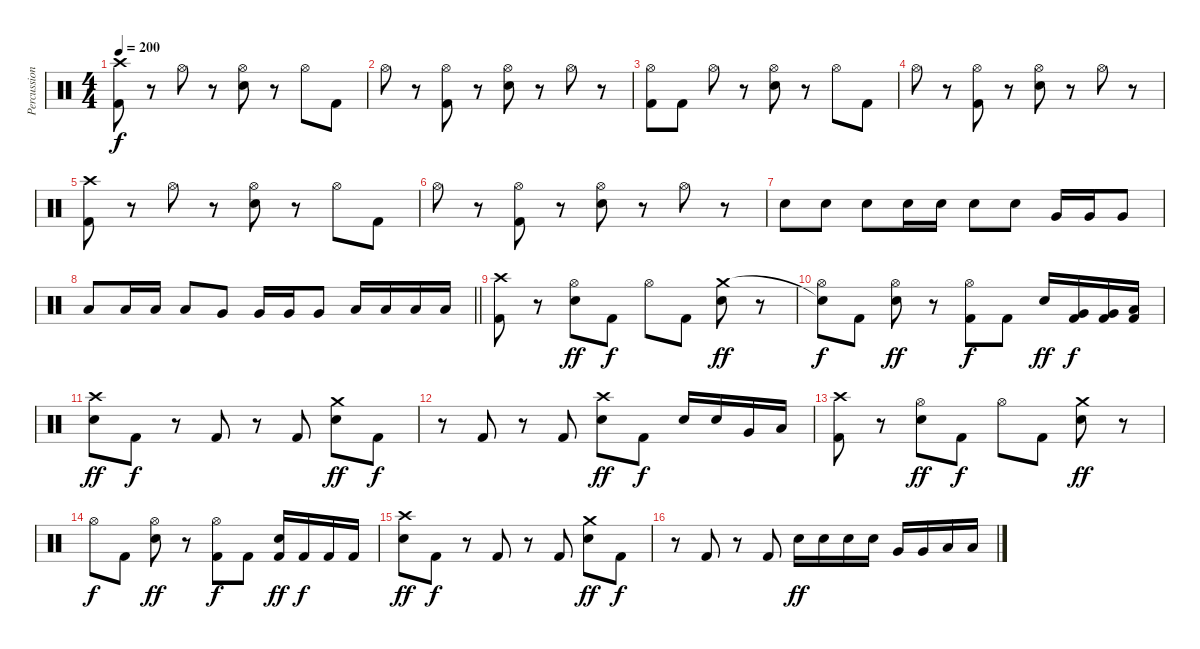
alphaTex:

\track ("Percussion" "Percussion") {instrument percussion}
\staff {score}
\articulation defaults
\ts (4 4)
\tempo 200
\clef neutral
\ks c
("Crash high (hit)" "Kick (hit) 2").8{dy f} r.8 "Hi-Hat (open)".8 r.8 ("Hi-Hat (open)" "Electric Snare (hit)").8 r.8 "Hi-Hat (open)".8 "Kick (hit) 2".8 |
"Hi-Hat (open)".8 r.8 ("Hi-Hat (open)" "Kick (hit) 2").8 r.8 ("Hi-Hat (open)" "Electric Snare (hit)").8 r.8 "Hi-Hat (open)".8 r.8 |
("Hi-Hat (open)" "Kick (hit) 2").8 "Kick (hit) 2".8 "Hi-Hat (open)".8 r.8 ("Hi-Hat (open)" "Electric Snare (hit)").8 r.8 "Hi-Hat (open)".8 "Kick (hit) 2".8 |
"Hi-Hat (open)".8 r.8 ("Hi-Hat (open)" "Kick (hit) 2").8 r.8 ("Hi-Hat (open)" "Electric Snare (hit)").8 r.8 "Hi-Hat (open)".8 r.8 |
("Crash high (hit)" "Kick (hit) 2").8 r.8 "Hi-Hat (open)".8 r.8 ("Hi-Hat (open)" "Electric Snare (hit)").8 r.8 "Hi-Hat (open)".8 "Kick (hit) 2".8 |
"Hi-Hat (open)".8 r.8 ("Hi-Hat (open)" "Kick (hit) 2").8 r.8 ("Hi-Hat (open)" "Electric Snare (hit)").8 r.8 "Hi-Hat (open)".8 r.8 |
"Electric Snare (hit)".8 "Electric Snare (hit)".8 "Electric Snare (hit)".8 "Electric Snare (hit)".16 "Electric Snare (hit)".16 "Electric Snare (hit)".8 "Electric Snare (hit)".8 "Very Low Tom (hit)".16 "Very Low Tom (hit)".16 "Very Low Tom (hit)".8 |
\barLineRight lightlight "Low Tom (hit)".8 "Low Tom (hit)".16 "Low Tom (hit)".16 "Low Tom (hit)".8 "Very Low Tom (hit)".8 "Very Low Tom (hit)".16 "Very Low Tom (hit)".16 "Very Low Tom (hit)".8 "Low Floor Tom (hit)".16 "Low Floor Tom (hit)".16 "Low Floor Tom (hit)".16 "Low Floor Tom (hit)".16
|
\section ("" "")
("Crash high (hit)" "Kick (hit) 2").8 r.8 ("Hi-Hat (open)" "Electric Snare (hit)").8{dy ff} "Kick (hit) 2".8{dy f} "Hi-Hat (open)".8 "Kick (hit) 2".8 ("Crash medium (hit)" "Electric Snare (hit)").8{dy ff} r.8 |
("Snare (hit)"{t} "Hi-Hat (open)").8{dy f} "Kick (hit) 2".8 ("Hi-Hat (open)" "Electric Snare (hit)").8{dy ff} r.8 ("Hi-Hat (open)" "Kick (hit) 2").8{dy f} "Kick (hit) 2".8 "Electric Snare (hit)".16{dy ff} ("Very Low Tom (hit)" "Kick (hit) 2").16{dy f} ("Very Low Tom (hit)" "Kick (hit) 2").16 ("Low Floor Tom (hit)" "Kick (hit) 2").16 |
("Crash high (hit)" "Electric Snare (hit)").8{dy ff} "Kick (hit) 2".8{dy f} r.8 "Kick (hit) 2".8 r.8 "Kick (hit) 2".8 ("Crash medium (hit)" "Electric Snare (hit)").8{dy ff} "Kick (hit) 2".8{dy f} |
r.8 "Kick (hit) 2".8 r.8 "Kick (hit) 2".8 ("Crash high (hit)" "Electric Snare (hit)").8{dy ff} "Kick (hit) 2".8{dy f} "Electric Snare (hit)".16 "Electric Snare (hit)".16 "Very Low Tom (hit)".16 "Low Tom (hit)".16 |
("Crash high (hit)" "Kick (hit) 2").8 r.8 ("Hi-Hat (open)" "Electric Snare (hit)").8{dy ff} "Kick (hit) 2".8{dy f} "Hi-Hat (open)".8 "Kick (hit) 2".8 ("Crash medium (hit)" "Electric Snare (hit)").8{dy ff} r.8 |
"Hi-Hat (open)".8{dy f} "Kick (hit) 2".8 ("Hi-Hat (open)" "Electric Snare (hit)").8{dy ff} r.8 ("Hi-Hat (open)" "Kick (hit) 2").8{dy f} "Kick (hit) 2".8 ("Electric Snare (hit)" "Kick (hit) 2").16{dy ff} "Kick (hit) 2".16{dy f} "Kick (hit) 2".16 "Kick (hit) 2".16 |
("Crash high (hit)" "Electric Snare (hit)").8{dy ff} "Kick (hit) 2".8{dy f} r.8 "Kick (hit) 2".8 r.8 "Kick (hit) 2".8 ("Crash medium (hit)" "Electric Snare (hit)").8{dy ff} "Kick (hit) 2".8{dy f} |
r.8 "Kick (hit) 2".8 r.8 "Kick (hit) 2".8 "Electric Snare (hit)".16{dy ff} "Electric Snare (hit)".16 "Electric Snare (hit)".16 "Electric Snare (hit)".16 "Very Low Tom (hit)".16 "Very Low Tom (hit)".16 "Low Tom (hit)".16 "Low Tom (hit)".16
